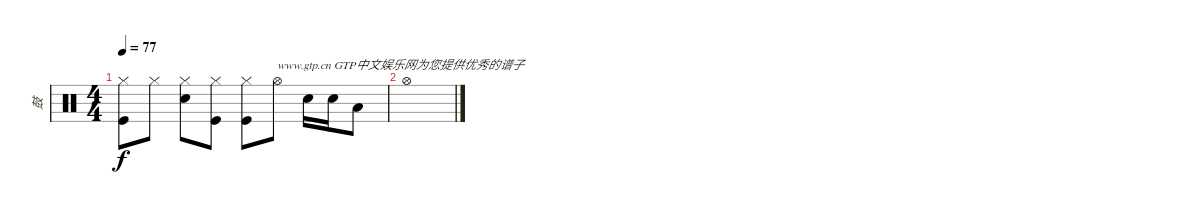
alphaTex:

\track ("鼓" "鼓") {instrument percussion}
\staff {score}
\articulation defaults
\ts (4 4)
\tempo 77
\clef neutral
\ks c
("Hi-Hat (closed)" "Kick (hit)").8{dy f} "Hi-Hat (closed)".8 ("Hi-Hat (closed)" "Snare (hit) 2").8 ("Hi-Hat (closed)" "Kick (hit)").8 ("Hi-Hat (closed)" "Kick (hit)").8 "Hi-Hat (open)".8{txt "www.gtp.cn GTP中文娱乐网为您提供优秀的谱子"} "Snare (hit) 2".16 "Snare (hit) 2".16 "Low Tom (hit)".8 |
"Hi-Hat (open)".1
